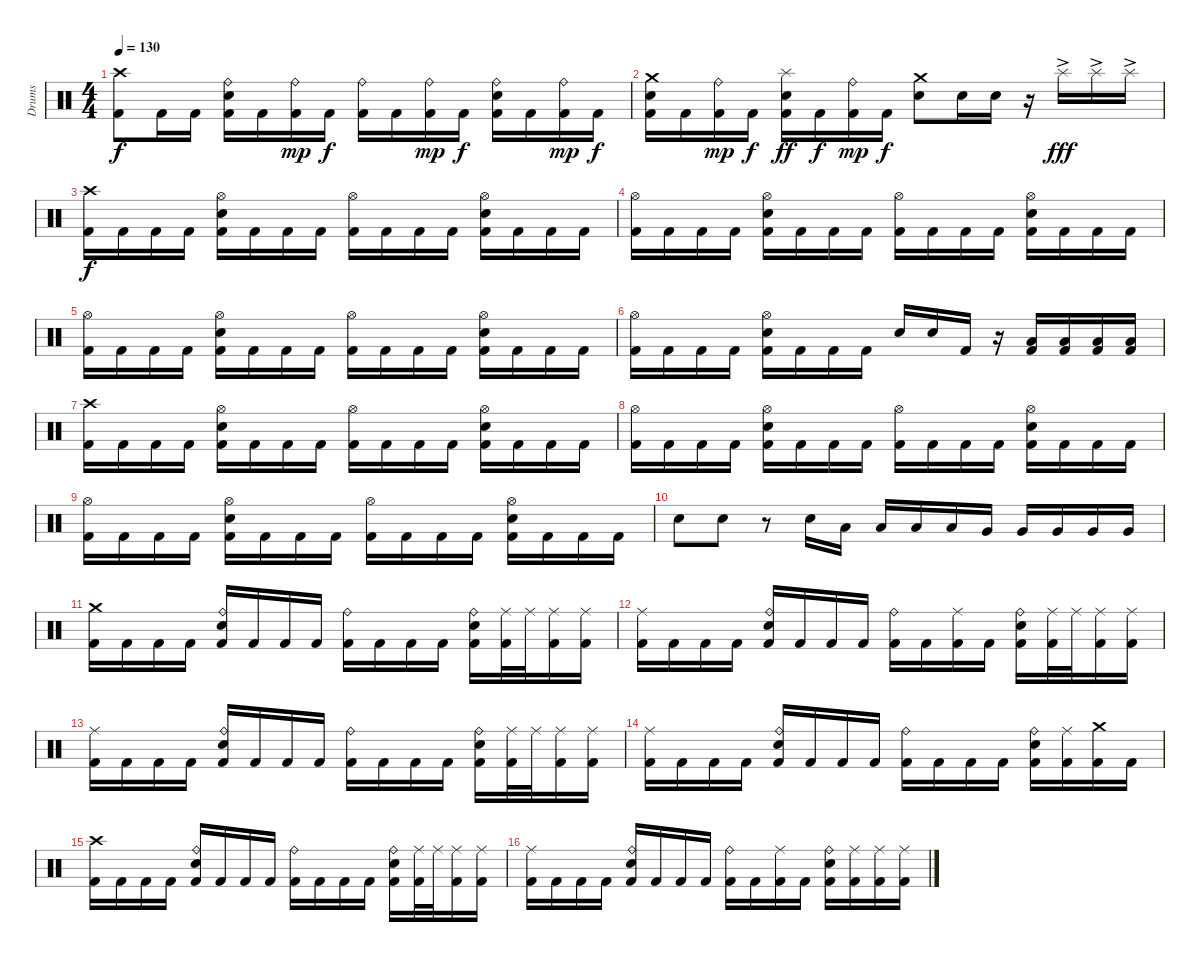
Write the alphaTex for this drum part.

\track ("Drums" "Drums") {instrument percussion}
\staff {score}
\articulation defaults
\ts (4 4)
\tempo 130
\clef neutral
\ks c
("Crash high (hit)" "Kick (hit) 2").8{dy f} "Kick (hit) 2".16 "Kick (hit) 2".16 ("Ride (bell)" "Snare (hit) 2" "Kick (hit) 2").16 "Kick (hit) 2".16 ("Ride (bell)" "Kick (hit) 2").16{dy mp} "Kick (hit) 2".16{dy f} ("Ride (bell)" "Kick (hit) 2").16 "Kick (hit) 2".16 ("Ride (bell)" "Kick (hit) 2").16{dy mp} "Kick (hit) 2".16{dy f} ("Ride (bell)" "Snare (hit) 2" "Kick (hit) 2").16 "Kick (hit) 2".16 ("Ride (bell)" "Kick (hit) 2").16{dy mp} "Kick (hit) 2".16{dy f} |
("Crash medium (hit)" "Snare (hit) 2" "Kick (hit) 2").16 "Kick (hit) 2".16 ("Ride (bell)" "Kick (hit) 2").16{dy mp} "Kick (hit) 2".16{dy f} ("Splash (hit)" "Snare (hit) 2" "Kick (hit) 2").16{dy ff} "Kick (hit) 2".16{dy f} ("Ride (bell)" "Kick (hit) 2").16{dy mp} "Kick (hit) 2".16{dy f} ("Crash medium (hit)" "Snare (hit) 2").8 "Snare (hit) 2".16 "Snare (hit) 2".16 r.16 "Splash (hit)"{ac}.16{dy fff} "Splash (hit)"{ac}.16 "Splash (hit)"{ac}.16 |
("Crash high (hit)" "Kick (hit) 2").16{dy f} "Kick (hit) 2".16 "Kick (hit) 2".16 "Kick (hit) 2".16 ("Hi-Hat (open)" "Snare (hit) 2" "Kick (hit) 2").16 "Kick (hit) 2".16 "Kick (hit) 2".16 "Kick (hit) 2".16 ("Hi-Hat (open)" "Kick (hit) 2").16 "Kick (hit) 2".16 "Kick (hit) 2".16 "Kick (hit) 2".16 ("Hi-Hat (open)" "Snare (hit) 2" "Kick (hit) 2").16 "Kick (hit) 2".16 "Kick (hit) 2".16 "Kick (hit) 2".16 |
("Hi-Hat (open)" "Kick (hit) 2").16 "Kick (hit) 2".16 "Kick (hit) 2".16 "Kick (hit) 2".16 ("Hi-Hat (open)" "Snare (hit) 2" "Kick (hit) 2").16 "Kick (hit) 2".16 "Kick (hit) 2".16 "Kick (hit) 2".16 ("Hi-Hat (open)" "Kick (hit) 2").16 "Kick (hit) 2".16 "Kick (hit) 2".16 "Kick (hit) 2".16 ("Hi-Hat (open)" "Snare (hit) 2" "Kick (hit) 2").16 "Kick (hit) 2".16 "Kick (hit) 2".16 "Kick (hit) 2".16 |
("Hi-Hat (open)" "Kick (hit) 2").16 "Kick (hit) 2".16 "Kick (hit) 2".16 "Kick (hit) 2".16 ("Hi-Hat (open)" "Snare (hit) 2" "Kick (hit) 2").16 "Kick (hit) 2".16 "Kick (hit) 2".16 "Kick (hit) 2".16 ("Hi-Hat (open)" "Kick (hit) 2").16 "Kick (hit) 2".16 "Kick (hit) 2".16 "Kick (hit) 2".16 ("Hi-Hat (open)" "Snare (hit) 2" "Kick (hit) 2").16 "Kick (hit) 2".16 "Kick (hit) 2".16 "Kick (hit) 2".16 |
("Hi-Hat (open)" "Kick (hit) 2").16 "Kick (hit) 2".16 "Kick (hit) 2".16 "Kick (hit) 2".16 ("Hi-Hat (open)" "Snare (hit) 2" "Kick (hit) 2").16 "Kick (hit) 2".16 "Kick (hit) 2".16 "Kick (hit) 2".16 "Snare (hit) 2".16 "Snare (hit) 2".16 "Kick (hit) 2".16 r.16 ("Low Floor Tom (hit)" "Kick (hit) 2").16 ("Low Floor Tom (hit)" "Kick (hit) 2").16 ("Low Floor Tom (hit)" "Kick (hit) 2").16 ("Low Floor Tom (hit)" "Kick (hit) 2").16 |
("Crash high (hit)" "Kick (hit) 2").16 "Kick (hit) 2".16 "Kick (hit) 2".16 "Kick (hit) 2".16 ("Hi-Hat (open)" "Snare (hit) 2" "Kick (hit) 2").16 "Kick (hit) 2".16 "Kick (hit) 2".16 "Kick (hit) 2".16 ("Hi-Hat (open)" "Kick (hit) 2").16 "Kick (hit) 2".16 "Kick (hit) 2".16 "Kick (hit) 2".16 ("Hi-Hat (open)" "Snare (hit) 2" "Kick (hit) 2").16 "Kick (hit) 2".16 "Kick (hit) 2".16 "Kick (hit) 2".16 |
("Hi-Hat (open)" "Kick (hit) 2").16 "Kick (hit) 2".16 "Kick (hit) 2".16 "Kick (hit) 2".16 ("Hi-Hat (open)" "Snare (hit) 2" "Kick (hit) 2").16 "Kick (hit) 2".16 "Kick (hit) 2".16 "Kick (hit) 2".16 ("Hi-Hat (open)" "Kick (hit) 2").16 "Kick (hit) 2".16 "Kick (hit) 2".16 "Kick (hit) 2".16 ("Hi-Hat (open)" "Snare (hit) 2" "Kick (hit) 2").16 "Kick (hit) 2".16 "Kick (hit) 2".16 "Kick (hit) 2".16 |
("Hi-Hat (open)" "Kick (hit) 2").16 "Kick (hit) 2".16 "Kick (hit) 2".16 "Kick (hit) 2".16 ("Hi-Hat (open)" "Snare (hit) 2" "Kick (hit) 2").16 "Kick (hit) 2".16 "Kick (hit) 2".16 "Kick (hit) 2".16 ("Hi-Hat (open)" "Kick (hit) 2").16 "Kick (hit) 2".16 "Kick (hit) 2".16 "Kick (hit) 2".16 ("Hi-Hat (open)" "Snare (hit) 2" "Kick (hit) 2").16 "Kick (hit) 2".16 "Kick (hit) 2".16 "Kick (hit) 2".16 |
"Snare (hit) 2".8 "Snare (hit) 2".8 r.8 "Snare (hit) 2".16 "Low Tom (hit)".16 "Low Tom (hit)".16 "Low Tom (hit)".16 "Low Tom (hit)".16 "Very Low Tom (hit)".16 "Very Low Tom (hit)".16 "Very Low Tom (hit)".16 "Very Low Tom (hit)".16 "Very Low Tom (hit)".16 |
("Crash medium (hit)" "Kick (hit) 2").16 "Kick (hit) 2".16 "Kick (hit) 2".16 "Kick (hit) 2".16 ("Ride (bell)" "Snare (hit) 2" "Kick (hit) 2").16 "Kick (hit) 2".16 "Kick (hit) 2".16 "Kick (hit) 2".16 ("Ride (bell)" "Kick (hit) 2").16 "Kick (hit) 2".16 "Kick (hit) 2".16 "Kick (hit) 2".16 ("Ride (bell)" "Snare (hit) 2" "Kick (hit) 2").16 ("Ride (middle)" "Kick (hit) 2").32 "Ride (middle)".32 ("Ride (middle)" "Kick (hit) 2").16 ("Ride (middle)" "Kick (hit) 2").16 |
("Ride (middle)" "Kick (hit) 2").16 "Kick (hit) 2".16 "Kick (hit) 2".16 "Kick (hit) 2".16 ("Ride (bell)" "Snare (hit) 2" "Kick (hit) 2").16 "Kick (hit) 2".16 "Kick (hit) 2".16 "Kick (hit) 2".16 ("Ride (bell)" "Kick (hit) 2").16 "Kick (hit) 2".16 ("Ride (middle)" "Kick (hit) 2").16 "Kick (hit) 2".16 ("Ride (bell)" "Snare (hit) 2" "Kick (hit) 2").16 ("Ride (middle)" "Kick (hit) 2").32 "Ride (middle)".32 ("Ride (middle)" "Kick (hit) 2").16 ("Ride (middle)" "Kick (hit) 2").16 |
("Ride (middle)" "Kick (hit) 2").16 "Kick (hit) 2".16 "Kick (hit) 2".16 "Kick (hit) 2".16 ("Ride (bell)" "Snare (hit) 2" "Kick (hit) 2").16 "Kick (hit) 2".16 "Kick (hit) 2".16 "Kick (hit) 2".16 ("Ride (bell)" "Kick (hit) 2").16 "Kick (hit) 2".16 "Kick (hit) 2".16 "Kick (hit) 2".16 ("Ride (bell)" "Snare (hit) 2" "Kick (hit) 2").16 ("Ride (middle)" "Kick (hit) 2").32 "Ride (middle)".32 ("Ride (middle)" "Kick (hit) 2").16 ("Ride (middle)" "Kick (hit) 2").16 |
("Ride (middle)" "Kick (hit) 2").16 "Kick (hit) 2".16 "Kick (hit) 2".16 "Kick (hit) 2".16 ("Ride (bell)" "Snare (hit) 2" "Kick (hit) 2").16 "Kick (hit) 2".16 "Kick (hit) 2".16 "Kick (hit) 2".16 ("Ride (bell)" "Kick (hit) 2").16 "Kick (hit) 2".16 "Kick (hit) 2".16 "Kick (hit) 2".16 ("Ride (bell)" "Snare (hit) 2" "Kick (hit) 2").16 ("Ride (middle)" "Kick (hit) 2").16 ("Crash medium (hit)" "Kick (hit) 2").16 "Kick (hit) 2".16 |
("Crash high (hit)" "Kick (hit) 2").16 "Kick (hit) 2".16 "Kick (hit) 2".16 "Kick (hit) 2".16 ("Ride (bell)" "Snare (hit) 2" "Kick (hit) 2").16 "Kick (hit) 2".16 "Kick (hit) 2".16 "Kick (hit) 2".16 ("Ride (bell)" "Kick (hit) 2").16 "Kick (hit) 2".16 "Kick (hit) 2".16 "Kick (hit) 2".16 ("Ride (bell)" "Snare (hit) 2" "Kick (hit) 2").16 ("Ride (middle)" "Kick (hit) 2").32 "Ride (middle)".32 ("Ride (middle)" "Kick (hit) 2").16 ("Ride (middle)" "Kick (hit) 2").16 |
("Ride (middle)" "Kick (hit) 2").16 "Kick (hit) 2".16 "Kick (hit) 2".16 "Kick (hit) 2".16 ("Ride (bell)" "Snare (hit) 2" "Kick (hit) 2").16 "Kick (hit) 2".16 "Kick (hit) 2".16 "Kick (hit) 2".16 ("Ride (bell)" "Kick (hit) 2").16 "Kick (hit) 2".16 ("Ride (middle)" "Kick (hit) 2").16 "Kick (hit) 2".16 ("Ride (bell)" "Snare (hit) 2" "Kick (hit) 2").16 ("Ride (middle)" "Kick (hit) 2").16 ("Ride (middle)" "Kick (hit) 2").16 ("Ride (middle)" "Kick (hit) 2").16
